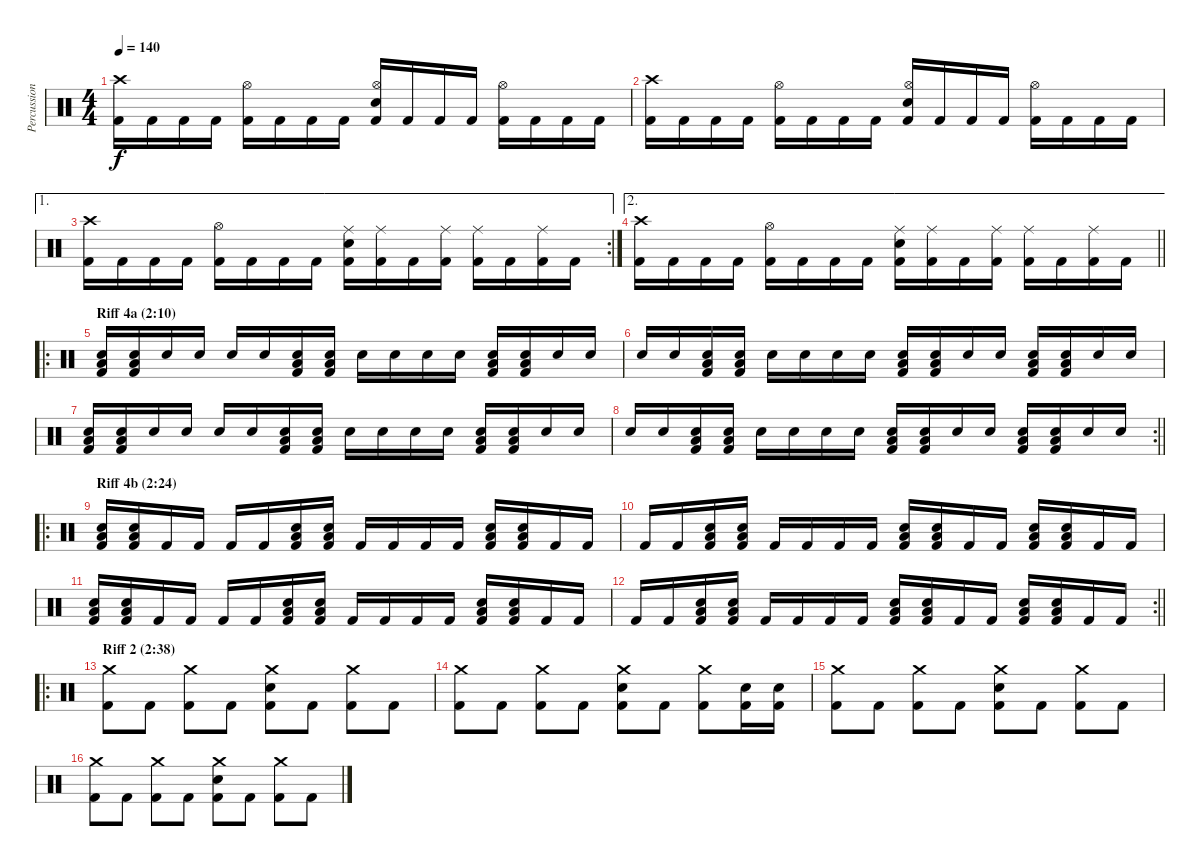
\track ("Percussion" "Percussion") {instrument percussion}
\staff {score}
\articulation defaults
\ts (4 4)
\tempo 140
\clef neutral
\ks c
("Crash high (hit)" "Kick (hit) 2").16{dy f} "Kick (hit) 2".16 "Kick (hit) 2".16 "Kick (hit) 2".16 ("Hi-Hat (open)" "Kick (hit) 2").16 "Kick (hit) 2".16 "Kick (hit) 2".16 "Kick (hit) 2".16 ("Hi-Hat (open)" "Electric Snare (hit)" "Kick (hit) 2").16 "Kick (hit) 2".16 "Kick (hit) 2".16 "Kick (hit) 2".16 ("Hi-Hat (open)" "Kick (hit) 2").16 "Kick (hit) 2".16 "Kick (hit) 2".16 "Kick (hit) 2".16 |
("Crash high (hit)" "Kick (hit) 2").16 "Kick (hit) 2".16 "Kick (hit) 2".16 "Kick (hit) 2".16 ("Hi-Hat (open)" "Kick (hit) 2").16 "Kick (hit) 2".16 "Kick (hit) 2".16 "Kick (hit) 2".16 ("Hi-Hat (open)" "Electric Snare (hit)" "Kick (hit) 2").16 "Kick (hit) 2".16 "Kick (hit) 2".16 "Kick (hit) 2".16 ("Hi-Hat (open)" "Kick (hit) 2").16 "Kick (hit) 2".16 "Kick (hit) 2".16 "Kick (hit) 2".16 |
\ae 1
\rc 2
("Crash high (hit)" "Kick (hit) 2").16 "Kick (hit) 2".16 "Kick (hit) 2".16 "Kick (hit) 2".16 ("Hi-Hat (open)" "Kick (hit) 2").16 "Kick (hit) 2".16 "Kick (hit) 2".16 "Kick (hit) 2".16 ("Ride (middle)" "Electric Snare (hit)" "Kick (hit) 2").16 ("Ride (middle)" "Kick (hit) 2").16 "Kick (hit) 2".16 ("Ride (middle)" "Kick (hit) 2").16 ("Ride (middle)" "Kick (hit) 2").16 "Kick (hit) 2".16 ("Ride (middle)" "Kick (hit) 2").16 "Kick (hit) 2".16 |
\ae 2
\barLineRight lightlight
("Crash high (hit)" "Kick (hit) 2").16 "Kick (hit) 2".16 "Kick (hit) 2".16 "Kick (hit) 2".16 ("Hi-Hat (open)" "Kick (hit) 2").16 "Kick (hit) 2".16 "Kick (hit) 2".16 "Kick (hit) 2".16 ("Ride (middle)" "Electric Snare (hit)" "Kick (hit) 2").16 ("Ride (middle)" "Kick (hit) 2").16 "Kick (hit) 2".16 ("Ride (middle)" "Kick (hit) 2").16 ("Ride (middle)" "Kick (hit) 2").16 "Kick (hit) 2".16 ("Ride (middle)" "Kick (hit) 2").16 "Kick (hit) 2".16 |
\ro
\section ("" "Riff 4a (2:10)")
("Electric Snare (hit)" "Low Floor Tom (hit)" "Kick (hit) 2").16 ("Electric Snare (hit)" "Low Floor Tom (hit)" "Kick (hit) 2").16 "Electric Snare (hit)".16 "Electric Snare (hit)".16 "Electric Snare (hit)".16 "Electric Snare (hit)".16 ("Electric Snare (hit)" "Low Floor Tom (hit)" "Kick (hit) 2").16 ("Electric Snare (hit)" "Low Floor Tom (hit)" "Kick (hit) 2").16 "Electric Snare (hit)".16 "Electric Snare (hit)".16 "Electric Snare (hit)".16 "Electric Snare (hit)".16 ("Electric Snare (hit)" "Low Floor Tom (hit)" "Kick (hit) 2").16 ("Electric Snare (hit)" "Low Floor Tom (hit)" "Kick (hit) 2").16 "Electric Snare (hit)".16 "Electric Snare (hit)".16 |
"Electric Snare (hit)".16 "Electric Snare (hit)".16 ("Electric Snare (hit)" "Low Floor Tom (hit)" "Kick (hit) 2").16 ("Electric Snare (hit)" "Low Floor Tom (hit)" "Kick (hit) 2").16 "Electric Snare (hit)".16 "Electric Snare (hit)".16 "Electric Snare (hit)".16 "Electric Snare (hit)".16 ("Electric Snare (hit)" "Low Floor Tom (hit)" "Kick (hit) 2").16 ("Electric Snare (hit)" "Low Floor Tom (hit)" "Kick (hit) 2").16 "Electric Snare (hit)".16 "Electric Snare (hit)".16 ("Electric Snare (hit)" "Low Floor Tom (hit)" "Kick (hit) 2").16 ("Electric Snare (hit)" "Low Floor Tom (hit)" "Kick (hit) 2").16 "Electric Snare (hit)".16 "Electric Snare (hit)".16 |
("Electric Snare (hit)" "Low Floor Tom (hit)" "Kick (hit) 2").16 ("Electric Snare (hit)" "Low Floor Tom (hit)" "Kick (hit) 2").16 "Electric Snare (hit)".16 "Electric Snare (hit)".16 "Electric Snare (hit)".16 "Electric Snare (hit)".16 ("Electric Snare (hit)" "Low Floor Tom (hit)" "Kick (hit) 2").16 ("Electric Snare (hit)" "Low Floor Tom (hit)" "Kick (hit) 2").16 "Electric Snare (hit)".16 "Electric Snare (hit)".16 "Electric Snare (hit)".16 "Electric Snare (hit)".16 ("Electric Snare (hit)" "Low Floor Tom (hit)" "Kick (hit) 2").16 ("Electric Snare (hit)" "Low Floor Tom (hit)" "Kick (hit) 2").16 "Electric Snare (hit)".16 "Electric Snare (hit)".16 |
\rc 2
\barLineRight lightlight "Electric Snare (hit)".16 "Electric Snare (hit)".16
("Electric Snare (hit)" "Low Floor Tom (hit)" "Kick (hit) 2").16 ("Electric Snare (hit)" "Low Floor Tom (hit)" "Kick (hit) 2").16 "Electric Snare (hit)".16 "Electric Snare (hit)".16 "Electric Snare (hit)".16 "Electric Snare (hit)".16 ("Electric Snare (hit)" "Low Floor Tom (hit)" "Kick (hit) 2").16 ("Electric Snare (hit)" "Low Floor Tom (hit)" "Kick (hit) 2").16 "Electric Snare (hit)".16 "Electric Snare (hit)".16 ("Electric Snare (hit)" "Low Floor Tom (hit)" "Kick (hit) 2").16 ("Electric Snare (hit)" "Low Floor Tom (hit)" "Kick (hit) 2").16 "Electric Snare (hit)".16 "Electric Snare (hit)".16 |
\ro
\section ("" "Riff 4b (2:24)")
("Electric Snare (hit)" "Low Floor Tom (hit)" "Kick (hit) 2").16 ("Electric Snare (hit)" "Low Floor Tom (hit)" "Kick (hit) 2").16 "Kick (hit) 2".16 "Kick (hit) 2".16 "Kick (hit) 2".16 "Kick (hit) 2".16 ("Electric Snare (hit)" "Low Floor Tom (hit)" "Kick (hit) 2").16 ("Electric Snare (hit)" "Low Floor Tom (hit)" "Kick (hit) 2").16 "Kick (hit) 2".16 "Kick (hit) 2".16 "Kick (hit) 2".16 "Kick (hit) 2".16 ("Electric Snare (hit)" "Low Floor Tom (hit)" "Kick (hit) 2").16 ("Electric Snare (hit)" "Low Floor Tom (hit)" "Kick (hit) 2").16 "Kick (hit) 2".16 "Kick (hit) 2".16 |
"Kick (hit) 2".16 "Kick (hit) 2".16 ("Electric Snare (hit)" "Low Floor Tom (hit)" "Kick (hit) 2").16 ("Electric Snare (hit)" "Low Floor Tom (hit)" "Kick (hit) 2").16 "Kick (hit) 2".16 "Kick (hit) 2".16 "Kick (hit) 2".16 "Kick (hit) 2".16 ("Electric Snare (hit)" "Low Floor Tom (hit)" "Kick (hit) 2").16 ("Electric Snare (hit)" "Low Floor Tom (hit)" "Kick (hit) 2").16 "Kick (hit) 2".16 "Kick (hit) 2".16 ("Electric Snare (hit)" "Low Floor Tom (hit)" "Kick (hit) 2").16 ("Electric Snare (hit)" "Low Floor Tom (hit)" "Kick (hit) 2").16 "Kick (hit) 2".16 "Kick (hit) 2".16 |
("Electric Snare (hit)" "Low Floor Tom (hit)" "Kick (hit) 2").16 ("Electric Snare (hit)" "Low Floor Tom (hit)" "Kick (hit) 2").16 "Kick (hit) 2".16 "Kick (hit) 2".16 "Kick (hit) 2".16 "Kick (hit) 2".16 ("Electric Snare (hit)" "Low Floor Tom (hit)" "Kick (hit) 2").16 ("Electric Snare (hit)" "Low Floor Tom (hit)" "Kick (hit) 2").16 "Kick (hit) 2".16 "Kick (hit) 2".16 "Kick (hit) 2".16 "Kick (hit) 2".16 ("Electric Snare (hit)" "Low Floor Tom (hit)" "Kick (hit) 2").16 ("Electric Snare (hit)" "Low Floor Tom (hit)" "Kick (hit) 2").16 "Kick (hit) 2".16 "Kick (hit) 2".16 |
\rc 2
\barLineRight lightlight "Kick (hit) 2".16 "Kick (hit) 2".16
("Electric Snare (hit)" "Low Floor Tom (hit)" "Kick (hit) 2").16 ("Electric Snare (hit)" "Low Floor Tom (hit)" "Kick (hit) 2").16 "Kick (hit) 2".16 "Kick (hit) 2".16 "Kick (hit) 2".16 "Kick (hit) 2".16 ("Electric Snare (hit)" "Low Floor Tom (hit)" "Kick (hit) 2").16 ("Electric Snare (hit)" "Low Floor Tom (hit)" "Kick (hit) 2").16 "Kick (hit) 2".16 "Kick (hit) 2".16 ("Electric Snare (hit)" "Low Floor Tom (hit)" "Kick (hit) 2").16 ("Electric Snare (hit)" "Low Floor Tom (hit)" "Kick (hit) 2").16 "Kick (hit) 2".16 "Kick (hit) 2".16 |
\ro
\section ("" "Riff 2 (2:38)")
("Crash medium (hit)" "Kick (hit) 2").8 "Kick (hit) 2".8 ("Crash medium (hit)" "Kick (hit) 2").8 "Kick (hit) 2".8 ("Crash medium (hit)" "Electric Snare (hit)" "Kick (hit) 2").8 "Kick (hit) 2".8 ("Crash medium (hit)" "Kick (hit) 2").8 "Kick (hit) 2".8 |
("Crash medium (hit)" "Kick (hit) 2").8 "Kick (hit) 2".8 ("Crash medium (hit)" "Kick (hit) 2").8 "Kick (hit) 2".8 ("Crash medium (hit)" "Electric Snare (hit)" "Kick (hit) 2").8 "Kick (hit) 2".8 ("Crash medium (hit)" "Kick (hit) 2").8 ("Electric Snare (hit)" "Kick (hit) 2").16 ("Electric Snare (hit)" "Kick (hit) 2").16 |
("Crash medium (hit)" "Kick (hit) 2").8 "Kick (hit) 2".8 ("Crash medium (hit)" "Kick (hit) 2").8 "Kick (hit) 2".8 ("Crash medium (hit)" "Electric Snare (hit)" "Kick (hit) 2").8 "Kick (hit) 2".8 ("Crash medium (hit)" "Kick (hit) 2").8 "Kick (hit) 2".8 |
("Crash medium (hit)" "Kick (hit) 2").8 "Kick (hit) 2".8 ("Crash medium (hit)" "Kick (hit) 2").8 "Kick (hit) 2".8 ("Crash medium (hit)" "Electric Snare (hit)" "Kick (hit) 2").8 "Kick (hit) 2".8 ("Crash medium (hit)" "Kick (hit) 2").8 "Kick (hit) 2".8
